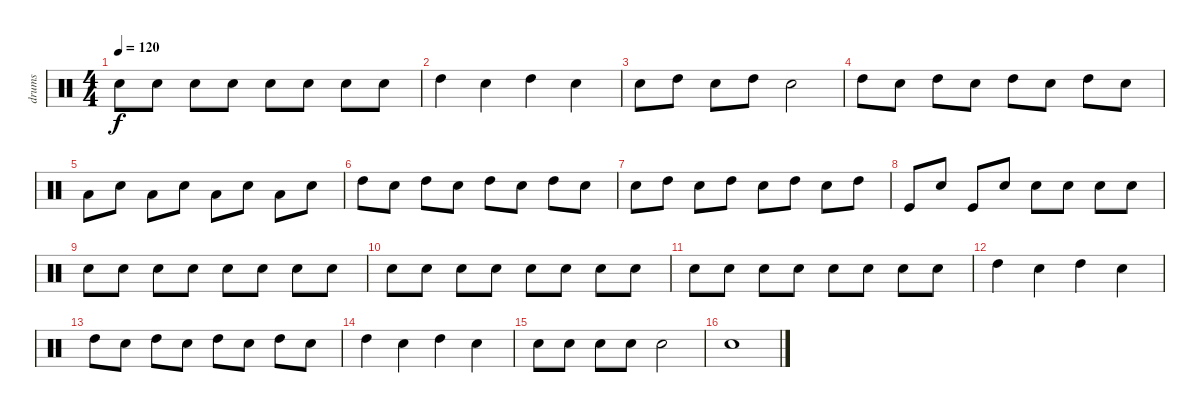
\track ("drums" "drums") {instrument percussion}
\staff {score}
\articulation defaults
\ts (4 4)
\tempo 120
\clef neutral
\ks c "Snare (hit) 2".8{dy f} "Snare (hit) 2".8 "Snare (hit) 2".8 "Snare (hit) 2".8 "Snare (hit) 2".8 "Snare (hit) 2".8 "Snare (hit) 2".8 "Snare (hit) 2".8
|
"High Tom (hit)".4 "Snare (hit) 2".4 "High Tom (hit)".4 "Snare (hit) 2".4 |
"Snare (hit) 2".8 "High Tom (hit)".8 "Snare (hit) 2".8 "High Tom (hit)".8 "Snare (hit) 2".2 |
"High Tom (hit)".8 "Snare (hit) 2".8 "High Tom (hit)".8 "Snare (hit) 2".8 "High Tom (hit)".8 "Snare (hit) 2".8 "High Tom (hit)".8 "Snare (hit) 2".8 |
"Low Tom (hit)".8 "Snare (hit) 2".8 "Low Tom (hit)".8 "Snare (hit) 2".8 "Low Tom (hit)".8 "Snare (hit) 2".8 "Low Tom (hit)".8 "Snare (hit) 2".8 |
"High Tom (hit)".8 "Snare (hit) 2".8 "High Tom (hit)".8 "Snare (hit) 2".8 "High Tom (hit)".8 "Snare (hit) 2".8 "High Tom (hit)".8 "Snare (hit) 2".8 |
"Snare (hit) 2".8 "High Tom (hit)".8 "Snare (hit) 2".8 "High Tom (hit)".8 "Snare (hit) 2".8 "High Tom (hit)".8 "Snare (hit) 2".8 "High Tom (hit)".8 |
"Kick (hit)".8 "Snare (hit) 2".8 "Kick (hit)".8 "Snare (hit) 2".8 "Snare (hit) 2".8 "Snare (hit) 2".8 "Snare (hit) 2".8 "Snare (hit) 2".8 |
"Snare (hit) 2".8 "Snare (hit) 2".8 "Snare (hit) 2".8 "Snare (hit) 2".8 "Snare (hit) 2".8 "Snare (hit) 2".8 "Snare (hit) 2".8 "Snare (hit) 2".8 |
"Snare (hit) 2".8 "Snare (hit) 2".8 "Snare (hit) 2".8 "Snare (hit) 2".8 "Snare (hit) 2".8 "Snare (hit) 2".8 "Snare (hit) 2".8 "Snare (hit) 2".8 |
"Snare (hit) 2".8 "Snare (hit) 2".8 "Snare (hit) 2".8 "Snare (hit) 2".8 "Snare (hit) 2".8 "Snare (hit) 2".8 "Snare (hit) 2".8 "Snare (hit) 2".8 |
"High Tom (hit)".4 "Snare (hit) 2".4 "High Tom (hit)".4 "Snare (hit) 2".4 |
"High Tom (hit)".8 "Snare (hit) 2".8 "High Tom (hit)".8 "Snare (hit) 2".8 "High Tom (hit)".8 "Snare (hit) 2".8 "High Tom (hit)".8 "Snare (hit) 2".8 |
"High Tom (hit)".4 "Snare (hit) 2".4 "High Tom (hit)".4 "Snare (hit) 2".4 |
"Snare (hit) 2".8 "Snare (hit) 2".8 "Snare (hit) 2".8 "Snare (hit) 2".8 "Snare (hit) 2".2 |
"Snare (hit) 2".1
